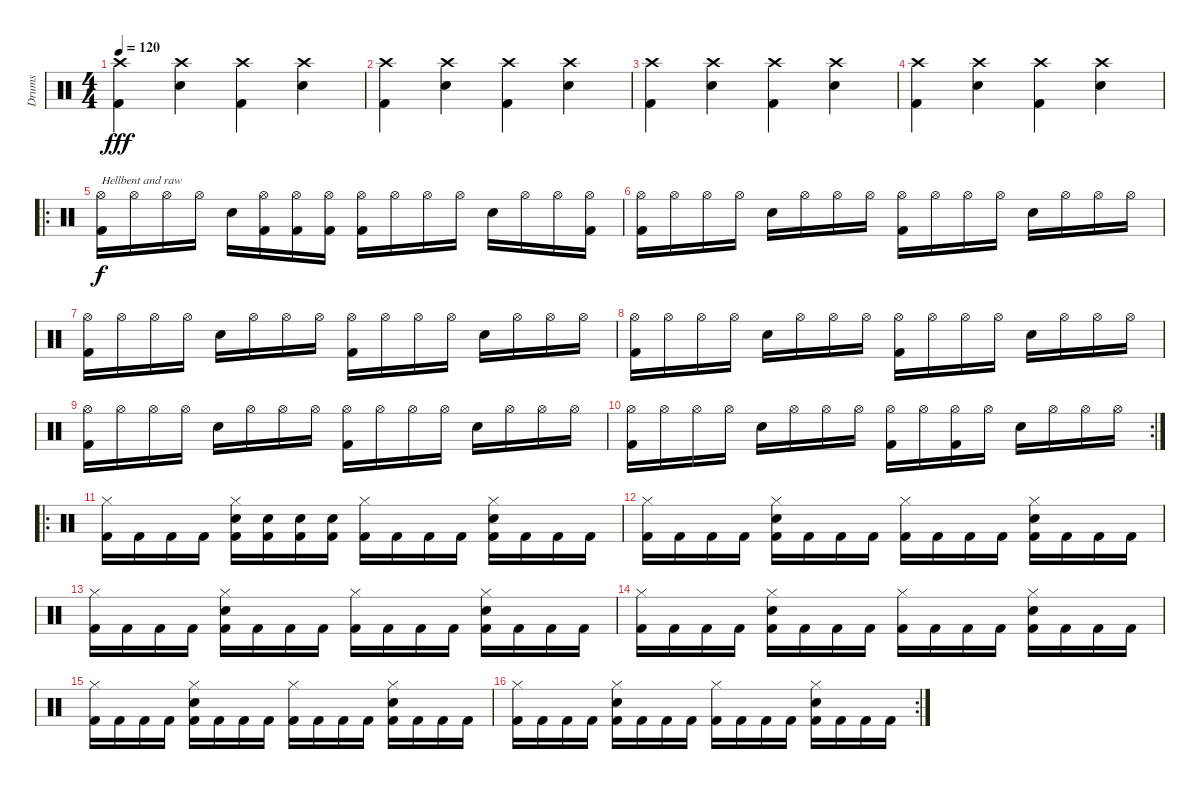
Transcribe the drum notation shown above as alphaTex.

\track ("Drums" "Drums") {instrument percussion}
\staff {score}
\articulation defaults
\ts (4 4)
\tempo 120
\clef neutral
\ks c
("Crash high (hit)" "Kick (hit) 2").4{dy fff volume 16} ("Crash high (hit)" "Electric Snare (hit)").4 ("Crash high (hit)" "Kick (hit) 2").4 ("Crash high (hit)" "Electric Snare (hit)").4 |
("Crash high (hit)" "Kick (hit) 2").4 ("Crash high (hit)" "Electric Snare (hit)").4 ("Crash high (hit)" "Kick (hit) 2").4 ("Crash high (hit)" "Electric Snare (hit)").4 |
("Crash high (hit)" "Kick (hit) 2").4 ("Crash high (hit)" "Electric Snare (hit)").4 ("Crash high (hit)" "Kick (hit) 2").4 ("Crash high (hit)" "Electric Snare (hit)").4 |
("Crash high (hit)" "Kick (hit) 2").4 ("Crash high (hit)" "Electric Snare (hit)").4 ("Crash high (hit)" "Kick (hit) 2").4 ("Crash high (hit)" "Electric Snare (hit)").4 |
\ro
("Hi-Hat (open)" "Kick (hit) 2").16{txt "Hellbent and raw" dy f} "Hi-Hat (open)".16 "Hi-Hat (open)".16 "Hi-Hat (open)".16 "Electric Snare (hit)".16 ("Hi-Hat (open)" "Kick (hit) 2").16 ("Hi-Hat (open)" "Kick (hit) 2").16 ("Hi-Hat (open)" "Kick (hit) 2").16 ("Hi-Hat (open)" "Kick (hit) 2").16 "Hi-Hat (open)".16 "Hi-Hat (open)".16 "Hi-Hat (open)".16 "Electric Snare (hit)".16 "Hi-Hat (open)".16 "Hi-Hat (open)".16 ("Hi-Hat (open)" "Kick (hit) 2").16 |
("Hi-Hat (open)" "Kick (hit) 2").16 "Hi-Hat (open)".16 "Hi-Hat (open)".16 "Hi-Hat (open)".16 "Electric Snare (hit)".16 "Hi-Hat (open)".16 "Hi-Hat (open)".16 "Hi-Hat (open)".16 ("Hi-Hat (open)" "Kick (hit) 2").16 "Hi-Hat (open)".16 "Hi-Hat (open)".16 "Hi-Hat (open)".16 "Electric Snare (hit)".16 "Hi-Hat (open)".16 "Hi-Hat (open)".16 "Hi-Hat (open)".16 |
("Hi-Hat (open)" "Kick (hit) 2").16 "Hi-Hat (open)".16 "Hi-Hat (open)".16 "Hi-Hat (open)".16 "Electric Snare (hit)".16 "Hi-Hat (open)".16 "Hi-Hat (open)".16 "Hi-Hat (open)".16 ("Hi-Hat (open)" "Kick (hit) 2").16 "Hi-Hat (open)".16 "Hi-Hat (open)".16 "Hi-Hat (open)".16 "Electric Snare (hit)".16 "Hi-Hat (open)".16 "Hi-Hat (open)".16 "Hi-Hat (open)".16 |
("Hi-Hat (open)" "Kick (hit) 2").16 "Hi-Hat (open)".16 "Hi-Hat (open)".16 "Hi-Hat (open)".16 "Electric Snare (hit)".16 "Hi-Hat (open)".16 "Hi-Hat (open)".16 "Hi-Hat (open)".16 ("Hi-Hat (open)" "Kick (hit) 2").16 "Hi-Hat (open)".16 "Hi-Hat (open)".16 "Hi-Hat (open)".16 "Electric Snare (hit)".16 "Hi-Hat (open)".16 "Hi-Hat (open)".16 "Hi-Hat (open)".16 |
("Hi-Hat (open)" "Kick (hit) 2").16 "Hi-Hat (open)".16 "Hi-Hat (open)".16 "Hi-Hat (open)".16 "Electric Snare (hit)".16 "Hi-Hat (open)".16 "Hi-Hat (open)".16 "Hi-Hat (open)".16 ("Hi-Hat (open)" "Kick (hit) 2").16 "Hi-Hat (open)".16 "Hi-Hat (open)".16 "Hi-Hat (open)".16 "Electric Snare (hit)".16 "Hi-Hat (open)".16 "Hi-Hat (open)".16 "Hi-Hat (open)".16 |
\rc 2
("Hi-Hat (open)" "Kick (hit) 2").16 "Hi-Hat (open)".16 "Hi-Hat (open)".16 "Hi-Hat (open)".16 "Electric Snare (hit)".16 "Hi-Hat (open)".16 "Hi-Hat (open)".16 "Hi-Hat (open)".16 ("Hi-Hat (open)" "Kick (hit) 2").16 "Hi-Hat (open)".16 ("Hi-Hat (open)" "Kick (hit) 2").16 "Hi-Hat (open)".16 "Electric Snare (hit)".16 "Hi-Hat (open)".16 "Hi-Hat (open)".16 "Hi-Hat (open)".16 |
\ro
("Hi-Hat (closed)" "Kick (hit) 2").16 "Kick (hit) 2".16 "Kick (hit) 2".16 "Kick (hit) 2".16 ("Hi-Hat (closed)" "Electric Snare (hit)" "Kick (hit) 2").16 ("Electric Snare (hit)" "Kick (hit) 2").16 ("Electric Snare (hit)" "Kick (hit) 2").16 ("Electric Snare (hit)" "Kick (hit) 2").16 ("Hi-Hat (closed)" "Kick (hit) 2").16 "Kick (hit) 2".16 "Kick (hit) 2".16 "Kick (hit) 2".16 ("Hi-Hat (closed)" "Electric Snare (hit)" "Kick (hit) 2").16 "Kick (hit) 2".16 "Kick (hit) 2".16 "Kick (hit) 2".16 |
("Hi-Hat (closed)" "Kick (hit) 2").16 "Kick (hit) 2".16 "Kick (hit) 2".16 "Kick (hit) 2".16 ("Hi-Hat (closed)" "Electric Snare (hit)" "Kick (hit) 2").16 "Kick (hit) 2".16 "Kick (hit) 2".16 "Kick (hit) 2".16 ("Hi-Hat (closed)" "Kick (hit) 2").16 "Kick (hit) 2".16 "Kick (hit) 2".16 "Kick (hit) 2".16 ("Hi-Hat (closed)" "Electric Snare (hit)" "Kick (hit) 2").16 "Kick (hit) 2".16 "Kick (hit) 2".16 "Kick (hit) 2".16 |
("Hi-Hat (closed)" "Kick (hit) 2").16 "Kick (hit) 2".16 "Kick (hit) 2".16 "Kick (hit) 2".16 ("Hi-Hat (closed)" "Electric Snare (hit)" "Kick (hit) 2").16 "Kick (hit) 2".16 "Kick (hit) 2".16 "Kick (hit) 2".16 ("Hi-Hat (closed)" "Kick (hit) 2").16 "Kick (hit) 2".16 "Kick (hit) 2".16 "Kick (hit) 2".16 ("Hi-Hat (closed)" "Electric Snare (hit)" "Kick (hit) 2").16 "Kick (hit) 2".16 "Kick (hit) 2".16 "Kick (hit) 2".16 |
("Hi-Hat (closed)" "Kick (hit) 2").16 "Kick (hit) 2".16 "Kick (hit) 2".16 "Kick (hit) 2".16 ("Hi-Hat (closed)" "Electric Snare (hit)" "Kick (hit) 2").16 "Kick (hit) 2".16 "Kick (hit) 2".16 "Kick (hit) 2".16 ("Hi-Hat (closed)" "Kick (hit) 2").16 "Kick (hit) 2".16 "Kick (hit) 2".16 "Kick (hit) 2".16 ("Hi-Hat (closed)" "Electric Snare (hit)" "Kick (hit) 2").16 "Kick (hit) 2".16 "Kick (hit) 2".16 "Kick (hit) 2".16 |
("Hi-Hat (closed)" "Kick (hit) 2").16 "Kick (hit) 2".16 "Kick (hit) 2".16 "Kick (hit) 2".16 ("Hi-Hat (closed)" "Electric Snare (hit)" "Kick (hit) 2").16 "Kick (hit) 2".16 "Kick (hit) 2".16 "Kick (hit) 2".16 ("Hi-Hat (closed)" "Kick (hit) 2").16 "Kick (hit) 2".16 "Kick (hit) 2".16 "Kick (hit) 2".16 ("Hi-Hat (closed)" "Electric Snare (hit)" "Kick (hit) 2").16 "Kick (hit) 2".16 "Kick (hit) 2".16 "Kick (hit) 2".16 |
\rc 2
("Hi-Hat (closed)" "Kick (hit) 2").16 "Kick (hit) 2".16 "Kick (hit) 2".16 "Kick (hit) 2".16 ("Hi-Hat (closed)" "Electric Snare (hit)" "Kick (hit) 2").16 "Kick (hit) 2".16 "Kick (hit) 2".16 "Kick (hit) 2".16 ("Hi-Hat (closed)" "Kick (hit) 2").16 "Kick (hit) 2".16 "Kick (hit) 2".16 "Kick (hit) 2".16 ("Hi-Hat (closed)" "Electric Snare (hit)" "Kick (hit) 2").16 "Kick (hit) 2".16 "Kick (hit) 2".16 "Kick (hit) 2".16
